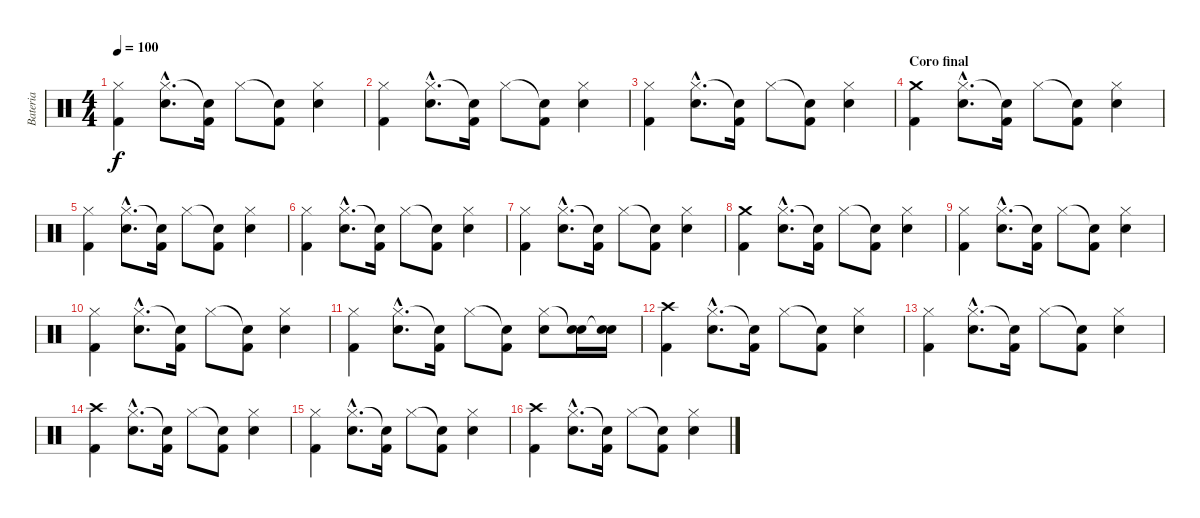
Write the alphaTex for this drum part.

\track ("Bateria" "Bateria") {instrument percussion}
\staff {score}
\articulation defaults
\ts (4 4)
\tempo 100
\clef neutral
\ks c
("Hi-Hat (closed)" "Kick (hit) 2").4{dy f} ("Hi-Hat (closed)"{hac} "Electric Snare (hit)"{hac}).8{d} ("Snare (hit)"{t} "Kick (hit) 2").16 "Hi-Hat (closed)".8 ("Snare (hit)"{t} "Kick (hit) 2").8 ("Hi-Hat (closed)" "Electric Snare (hit)").4 |
("Hi-Hat (closed)" "Kick (hit) 2").4 ("Hi-Hat (closed)"{hac} "Electric Snare (hit)"{hac}).8{d} ("Snare (hit)"{t} "Kick (hit) 2").16 "Hi-Hat (closed)".8 ("Snare (hit)"{t} "Kick (hit) 2").8 ("Hi-Hat (closed)" "Electric Snare (hit)").4 |
("Hi-Hat (closed)" "Kick (hit) 2").4 ("Hi-Hat (closed)"{hac} "Electric Snare (hit)"{hac}).8{d} ("Snare (hit)"{t} "Kick (hit) 2").16 "Hi-Hat (closed)".8 ("Snare (hit)"{t} "Kick (hit) 2").8 ("Hi-Hat (closed)" "Electric Snare (hit)").4 |
\section ("" "Coro final")
("Crash medium (hit)" "Kick (hit) 2").4 ("Hi-Hat (closed)"{hac} "Electric Snare (hit)"{hac}).8{d} ("Snare (hit)"{t} "Kick (hit) 2").16 "Hi-Hat (closed)".8 ("Snare (hit)"{t} "Kick (hit) 2").8 ("Hi-Hat (closed)" "Electric Snare (hit)").4 |
("Hi-Hat (closed)" "Kick (hit) 2").4 ("Hi-Hat (closed)"{hac} "Electric Snare (hit)"{hac}).8{d} ("Snare (hit)"{t} "Kick (hit) 2").16 "Hi-Hat (closed)".8 ("Snare (hit)"{t} "Kick (hit) 2").8 ("Hi-Hat (closed)" "Electric Snare (hit)").4 |
("Hi-Hat (closed)" "Kick (hit) 2").4 ("Hi-Hat (closed)"{hac} "Electric Snare (hit)"{hac}).8{d} ("Snare (hit)"{t} "Kick (hit) 2").16 "Hi-Hat (closed)".8 ("Snare (hit)"{t} "Kick (hit) 2").8 ("Hi-Hat (closed)" "Electric Snare (hit)").4 |
("Hi-Hat (closed)" "Kick (hit) 2").4 ("Hi-Hat (closed)"{hac} "Electric Snare (hit)"{hac}).8{d} ("Snare (hit)"{t} "Kick (hit) 2").16 "Hi-Hat (closed)".8 ("Snare (hit)"{t} "Kick (hit) 2").8 ("Hi-Hat (closed)" "Electric Snare (hit)").4 |
("Crash medium (hit)" "Kick (hit) 2").4 ("Hi-Hat (closed)"{hac} "Electric Snare (hit)"{hac}).8{d} ("Snare (hit)"{t} "Kick (hit) 2").16 "Hi-Hat (closed)".8 ("Snare (hit)"{t} "Kick (hit) 2").8 ("Hi-Hat (closed)" "Electric Snare (hit)").4 |
("Hi-Hat (closed)" "Kick (hit) 2").4 ("Hi-Hat (closed)"{hac} "Electric Snare (hit)"{hac}).8{d} ("Snare (hit)"{t} "Kick (hit) 2").16 "Hi-Hat (closed)".8 ("Snare (hit)"{t} "Kick (hit) 2").8 ("Hi-Hat (closed)" "Electric Snare (hit)").4 |
("Hi-Hat (closed)" "Kick (hit) 2").4 ("Hi-Hat (closed)"{hac} "Electric Snare (hit)"{hac}).8{d} ("Snare (hit)"{t} "Kick (hit) 2").16 "Hi-Hat (closed)".8 ("Snare (hit)"{t} "Kick (hit) 2").8 ("Hi-Hat (closed)" "Electric Snare (hit)").4 |
("Hi-Hat (closed)" "Kick (hit) 2").4 ("Hi-Hat (closed)"{hac} "Electric Snare (hit)"{hac}).8{d} ("Snare (hit)"{t} "Kick (hit) 2").16 "Hi-Hat (closed)".8 ("Snare (hit)"{t} "Kick (hit) 2").8 ("Hi-Hat (closed)" "Electric Snare (hit)").8 ("Snare (hit)"{t} "Electric Snare (hit)").16 ("Snare (hit)"{t} "Electric Snare (hit)").16 |
("Crash high (hit)" "Kick (hit) 2").4 ("Hi-Hat (closed)"{hac} "Electric Snare (hit)"{hac}).8{d} ("Snare (hit)"{t} "Kick (hit) 2").16 "Hi-Hat (closed)".8 ("Snare (hit)"{t} "Kick (hit) 2").8 ("Hi-Hat (closed)" "Electric Snare (hit)").4 |
("Hi-Hat (closed)" "Kick (hit) 2").4 ("Hi-Hat (closed)"{hac} "Electric Snare (hit)"{hac}).8{d} ("Snare (hit)"{t} "Kick (hit) 2").16 "Hi-Hat (closed)".8 ("Snare (hit)"{t} "Kick (hit) 2").8 ("Hi-Hat (closed)" "Electric Snare (hit)").4 |
("Crash high (hit)" "Kick (hit) 2").4 ("Hi-Hat (closed)"{hac} "Electric Snare (hit)"{hac}).8{d} ("Snare (hit)"{t} "Kick (hit) 2").16 "Hi-Hat (closed)".8 ("Snare (hit)"{t} "Kick (hit) 2").8 ("Hi-Hat (closed)" "Electric Snare (hit)").4 |
("Hi-Hat (closed)" "Kick (hit) 2").4 ("Hi-Hat (closed)"{hac} "Electric Snare (hit)"{hac}).8{d} ("Snare (hit)"{t} "Kick (hit) 2").16 "Hi-Hat (closed)".8 ("Snare (hit)"{t} "Kick (hit) 2").8 ("Hi-Hat (closed)" "Electric Snare (hit)").4 |
("Crash high (hit)" "Kick (hit) 2").4 ("Hi-Hat (closed)"{hac} "Electric Snare (hit)"{hac}).8{d} ("Snare (hit)"{t} "Kick (hit) 2").16 "Hi-Hat (closed)".8 ("Snare (hit)"{t} "Kick (hit) 2").8 ("Hi-Hat (closed)" "Electric Snare (hit)").4
